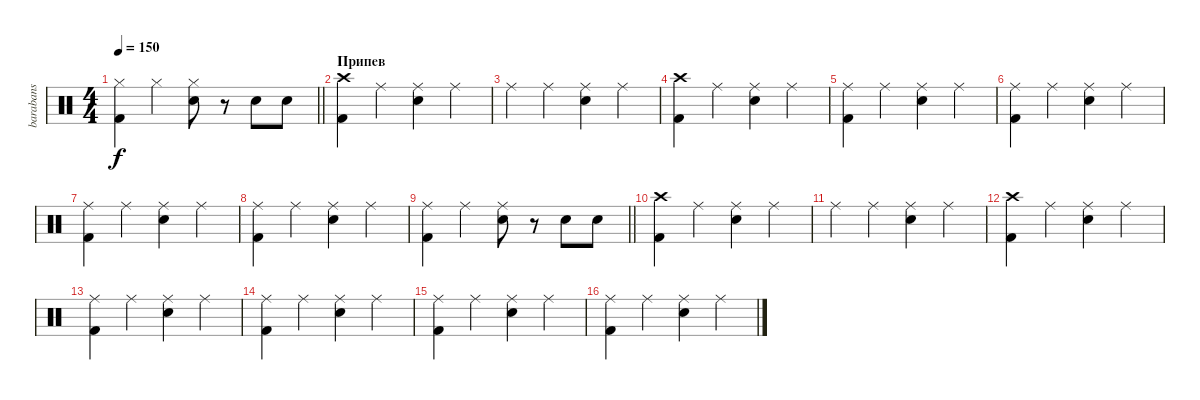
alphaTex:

\track ("barabans" "barabans") {instrument percussion}
\staff {score}
\articulation defaults
\ts (4 4)
\tempo 150
\clef neutral
\barLineRight lightlight
\ks c
("Hi-Hat (closed)" "Kick (hit) 2").4{dy f} "Hi-Hat (closed)".4 ("Hi-Hat (closed)" "Snare (hit) 2").8 r.8 "Snare (hit) 2".8 "Snare (hit) 2".8 |
\section ("" "Припев")
("Crash high (hit)" "Kick (hit) 2").4 "Ride (middle)".4 ("Ride (middle)" "Snare (hit) 2").4 "Ride (middle)".4 |
"Ride (middle)".4 "Ride (middle)".4 ("Ride (middle)" "Snare (hit) 2").4 "Ride (middle)".4 |
("Crash high (hit)" "Kick (hit) 2").4 "Ride (middle)".4 ("Ride (middle)" "Snare (hit) 2").4 "Ride (middle)".4 |
("Ride (middle)" "Kick (hit) 2").4 "Ride (middle)".4 ("Ride (middle)" "Snare (hit) 2").4 "Ride (middle)".4 |
("Ride (middle)" "Kick (hit) 2").4 "Ride (middle)".4 ("Ride (middle)" "Snare (hit) 2").4 "Ride (middle)".4 |
("Ride (middle)" "Kick (hit) 2").4 "Ride (middle)".4 ("Ride (middle)" "Snare (hit) 2").4 "Ride (middle)".4 |
("Ride (middle)" "Kick (hit) 2").4 "Ride (middle)".4 ("Ride (middle)" "Snare (hit) 2").4 "Ride (middle)".4 |
\barLineRight lightlight
("Ride (middle)" "Kick (hit) 2").4 "Ride (middle)".4 ("Ride (middle)" "Snare (hit) 2").8 r.8 "Snare (hit) 2".8 "Snare (hit) 2".8 |
("Crash high (hit)" "Kick (hit) 2").4 "Ride (middle)".4 ("Ride (middle)" "Snare (hit) 2").4 "Ride (middle)".4 |
"Ride (middle)".4 "Ride (middle)".4 ("Ride (middle)" "Snare (hit) 2").4 "Ride (middle)".4 |
("Crash high (hit)" "Kick (hit) 2").4 "Ride (middle)".4 ("Ride (middle)" "Snare (hit) 2").4 "Ride (middle)".4 |
("Ride (middle)" "Kick (hit) 2").4 "Ride (middle)".4 ("Ride (middle)" "Snare (hit) 2").4 "Ride (middle)".4 |
("Ride (middle)" "Kick (hit) 2").4 "Ride (middle)".4 ("Ride (middle)" "Snare (hit) 2").4 "Ride (middle)".4 |
("Ride (middle)" "Kick (hit) 2").4 "Ride (middle)".4 ("Ride (middle)" "Snare (hit) 2").4 "Ride (middle)".4 |
("Ride (middle)" "Kick (hit) 2").4 "Ride (middle)".4 ("Ride (middle)" "Snare (hit) 2").4 "Ride (middle)".4
